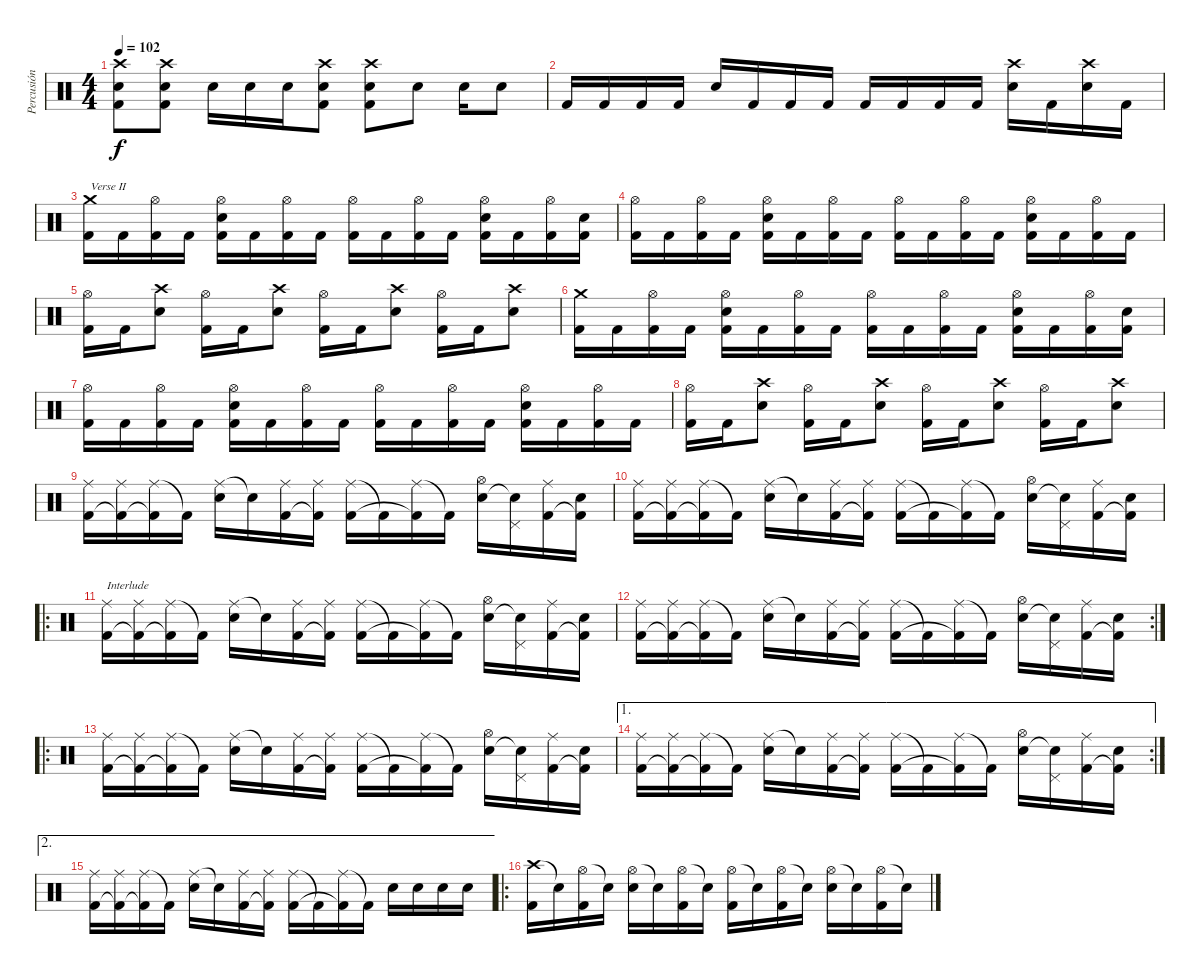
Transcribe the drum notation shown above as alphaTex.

\track ("Percusión" "Percusión") {instrument percussion}
\staff {score}
\articulation defaults
\ts (4 4)
\tempo 102
\clef neutral
\ks c
("Crash high (hit)" "Electric Snare (hit)" "Kick (hit) 2").8{dy f} ("Crash high (hit)" "Electric Snare (hit)" "Kick (hit) 2").8 "Electric Snare (hit)".16 "Electric Snare (hit)".16 "Electric Snare (hit)".16 ("Crash high (hit)" "Electric Snare (hit)" "Kick (hit) 2").8 ("Crash high (hit)" "Electric Snare (hit)" "Kick (hit) 2").8 "Electric Snare (hit)".8 "Electric Snare (hit)".16 "Electric Snare (hit)".8 |
"Kick (hit) 2".16 "Kick (hit) 2".16 "Kick (hit) 2".16 "Kick (hit) 2".16 "Electric Snare (hit)".16 "Kick (hit) 2".16 "Kick (hit) 2".16 "Kick (hit) 2".16 "Kick (hit) 2".16 "Kick (hit) 2".16 "Kick (hit) 2".16 "Kick (hit) 2".16 ("Crash high (hit)" "Electric Snare (hit)").16 "Kick (hit) 2".16 ("Crash high (hit)" "Electric Snare (hit)").16 "Kick (hit) 2".16 |
("Crash medium (hit)" "Kick (hit) 2").16{txt "Verse II"} "Kick (hit) 2".16 ("Hi-Hat (open)" "Kick (hit) 2").16 "Kick (hit) 2".16 ("Hi-Hat (open)" "Electric Snare (hit)" "Kick (hit) 2").16 "Kick (hit) 2".16 ("Hi-Hat (open)" "Kick (hit) 2").16 "Kick (hit) 2".16 ("Hi-Hat (open)" "Kick (hit) 2").16 "Kick (hit) 2".16 ("Hi-Hat (open)" "Kick (hit) 2").16 "Kick (hit) 2".16 ("Hi-Hat (open)" "Electric Snare (hit)" "Kick (hit) 2").16 "Kick (hit) 2".16 ("Hi-Hat (open)" "Kick (hit) 2").16 ("Electric Snare (hit)" "Kick (hit) 2").16 |
("Hi-Hat (open)" "Kick (hit) 2").16 "Kick (hit) 2".16 ("Hi-Hat (open)" "Kick (hit) 2").16 "Kick (hit) 2".16 ("Hi-Hat (open)" "Electric Snare (hit)" "Kick (hit) 2").16 "Kick (hit) 2".16 ("Hi-Hat (open)" "Kick (hit) 2").16 "Kick (hit) 2".16 ("Hi-Hat (open)" "Kick (hit) 2").16 "Kick (hit) 2".16 ("Hi-Hat (open)" "Kick (hit) 2").16 "Kick (hit) 2".16 ("Hi-Hat (open)" "Electric Snare (hit)" "Kick (hit) 2").16 "Kick (hit) 2".16 ("Hi-Hat (open)" "Kick (hit) 2").16 "Kick (hit) 2".16 |
("Hi-Hat (open)" "Kick (hit) 2").16 "Kick (hit) 2".16 ("Crash high (hit)" "Electric Snare (hit)").8 ("Hi-Hat (open)" "Kick (hit) 2").16 "Kick (hit) 2".16 ("Crash high (hit)" "Electric Snare (hit)").8 ("Hi-Hat (open)" "Kick (hit) 2").16 "Kick (hit) 2".16 ("Crash high (hit)" "Electric Snare (hit)").8 ("Hi-Hat (open)" "Kick (hit) 2").16 "Kick (hit) 2".16 ("Crash high (hit)" "Electric Snare (hit)").8 |
("Crash medium (hit)" "Kick (hit) 2").16 "Kick (hit) 2".16 ("Hi-Hat (open)" "Kick (hit) 2").16 "Kick (hit) 2".16 ("Hi-Hat (open)" "Electric Snare (hit)" "Kick (hit) 2").16 "Kick (hit) 2".16 ("Hi-Hat (open)" "Kick (hit) 2").16 "Kick (hit) 2".16 ("Hi-Hat (open)" "Kick (hit) 2").16 "Kick (hit) 2".16 ("Hi-Hat (open)" "Kick (hit) 2").16 "Kick (hit) 2".16 ("Hi-Hat (open)" "Electric Snare (hit)" "Kick (hit) 2").16 "Kick (hit) 2".16 ("Hi-Hat (open)" "Kick (hit) 2").16 ("Electric Snare (hit)" "Kick (hit) 2").16 |
("Hi-Hat (open)" "Kick (hit) 2").16 "Kick (hit) 2".16 ("Hi-Hat (open)" "Kick (hit) 2").16 "Kick (hit) 2".16 ("Hi-Hat (open)" "Electric Snare (hit)" "Kick (hit) 2").16 "Kick (hit) 2".16 ("Hi-Hat (open)" "Kick (hit) 2").16 "Kick (hit) 2".16 ("Hi-Hat (open)" "Kick (hit) 2").16 "Kick (hit) 2".16 ("Hi-Hat (open)" "Kick (hit) 2").16 "Kick (hit) 2".16 ("Hi-Hat (open)" "Electric Snare (hit)" "Kick (hit) 2").16 "Kick (hit) 2".16 ("Hi-Hat (open)" "Kick (hit) 2").16 "Kick (hit) 2".16 |
("Hi-Hat (open)" "Kick (hit) 2").16 "Kick (hit) 2".16 ("Crash high (hit)" "Electric Snare (hit)").8 ("Hi-Hat (open)" "Kick (hit) 2").16 "Kick (hit) 2".16 ("Crash high (hit)" "Electric Snare (hit)").8 ("Hi-Hat (open)" "Kick (hit) 2").16 "Kick (hit) 2".16 ("Crash high (hit)" "Electric Snare (hit)").8 ("Hi-Hat (open)" "Kick (hit) 2").16 "Kick (hit) 2".16 ("Crash high (hit)" "Electric Snare (hit)").8 |
("Ride (middle)" "Kick (hit) 2").16 ("Ride (middle)" "Kick (hit) 2"{t}).16 ("Ride (middle)" "Kick (hit) 2"{t}).16 "Kick (hit) 2"{t}.16 ("Ride (middle)" "Electric Snare (hit)").16 "Snare (hit)"{t}.16 ("Ride (middle)" "Kick (hit) 2").16 ("Ride (middle)" "Kick (hit) 2"{t}).16 ("Ride (middle)" "Kick (hit) 2").16 "Kick (hit) 2"{t}.16 ("Ride (middle)" "Kick (hit) 2"{t}).16 "Kick (hit) 2"{t}.16 ("Hi-Hat (open)" "Electric Snare (hit)").16 ("Pedal Hi-Hat (hit)" "Snare (hit)"{t}).16 ("Ride (middle)" "Kick (hit) 2").16 ("Electric Snare (hit)" "Kick (hit) 2"{t}).16 |
("Ride (middle)" "Kick (hit) 2").16 ("Ride (middle)" "Kick (hit) 2"{t}).16 ("Ride (middle)" "Kick (hit) 2"{t}).16 "Kick (hit) 2"{t}.16 ("Ride (middle)" "Electric Snare (hit)").16 "Snare (hit)"{t}.16 ("Ride (middle)" "Kick (hit) 2").16 ("Ride (middle)" "Kick (hit) 2"{t}).16 ("Ride (middle)" "Kick (hit) 2").16 "Kick (hit) 2"{t}.16 ("Ride (middle)" "Kick (hit) 2"{t}).16 "Kick (hit) 2"{t}.16 ("Hi-Hat (open)" "Electric Snare (hit)").16 ("Pedal Hi-Hat (hit)" "Snare (hit)"{t}).16 ("Ride (middle)" "Kick (hit) 2").16 ("Electric Snare (hit)" "Kick (hit) 2"{t}).16 |
\ro
("Ride (middle)" "Kick (hit) 2").16{txt "Interlude"} ("Ride (middle)" "Kick (hit) 2"{t}).16 ("Ride (middle)" "Kick (hit) 2"{t}).16 "Kick (hit) 2"{t}.16 ("Ride (middle)" "Electric Snare (hit)").16 "Snare (hit)"{t}.16 ("Ride (middle)" "Kick (hit) 2").16 ("Ride (middle)" "Kick (hit) 2"{t}).16 ("Ride (middle)" "Kick (hit) 2").16 "Kick (hit) 2"{t}.16 ("Ride (middle)" "Kick (hit) 2"{t}).16 "Kick (hit) 2"{t}.16 ("Hi-Hat (open)" "Electric Snare (hit)").16 ("Pedal Hi-Hat (hit)" "Snare (hit)"{t}).16 ("Ride (middle)" "Kick (hit) 2").16 ("Electric Snare (hit)" "Kick (hit) 2"{t}).16 |
\rc 2
("Ride (middle)" "Kick (hit) 2").16 ("Ride (middle)" "Kick (hit) 2"{t}).16 ("Ride (middle)" "Kick (hit) 2"{t}).16 "Kick (hit) 2"{t}.16 ("Ride (middle)" "Electric Snare (hit)").16 "Snare (hit)"{t}.16 ("Ride (middle)" "Kick (hit) 2").16 ("Ride (middle)" "Kick (hit) 2"{t}).16 ("Ride (middle)" "Kick (hit) 2").16 "Kick (hit) 2"{t}.16 ("Ride (middle)" "Kick (hit) 2"{t}).16 "Kick (hit) 2"{t}.16 ("Hi-Hat (open)" "Electric Snare (hit)").16 ("Pedal Hi-Hat (hit)" "Snare (hit)"{t}).16 ("Ride (middle)" "Kick (hit) 2").16 ("Electric Snare (hit)" "Kick (hit) 2"{t}).16 |
\ro
("Ride (middle)" "Kick (hit) 2").16 ("Ride (middle)" "Kick (hit) 2"{t}).16 ("Ride (middle)" "Kick (hit) 2"{t}).16 "Kick (hit) 2"{t}.16 ("Ride (middle)" "Electric Snare (hit)").16 "Snare (hit)"{t}.16 ("Ride (middle)" "Kick (hit) 2").16 ("Ride (middle)" "Kick (hit) 2"{t}).16 ("Ride (middle)" "Kick (hit) 2").16 "Kick (hit) 2"{t}.16 ("Ride (middle)" "Kick (hit) 2"{t}).16 "Kick (hit) 2"{t}.16 ("Hi-Hat (open)" "Electric Snare (hit)").16 ("Pedal Hi-Hat (hit)" "Snare (hit)"{t}).16 ("Ride (middle)" "Kick (hit) 2").16 ("Electric Snare (hit)" "Kick (hit) 2"{t}).16 |
\ae 1
\rc 2
("Ride (middle)" "Kick (hit) 2").16 ("Ride (middle)" "Kick (hit) 2"{t}).16 ("Ride (middle)" "Kick (hit) 2"{t}).16 "Kick (hit) 2"{t}.16 ("Ride (middle)" "Electric Snare (hit)").16 "Snare (hit)"{t}.16 ("Ride (middle)" "Kick (hit) 2").16 ("Ride (middle)" "Kick (hit) 2"{t}).16 ("Ride (middle)" "Kick (hit) 2").16 "Kick (hit) 2"{t}.16 ("Ride (middle)" "Kick (hit) 2"{t}).16 "Kick (hit) 2"{t}.16 ("Hi-Hat (open)" "Electric Snare (hit)").16 ("Pedal Hi-Hat (hit)" "Snare (hit)"{t}).16 ("Ride (middle)" "Kick (hit) 2").16 ("Electric Snare (hit)" "Kick (hit) 2"{t}).16 |
\ae 2
("Ride (middle)" "Kick (hit) 2").16 ("Ride (middle)" "Kick (hit) 2"{t}).16 ("Ride (middle)" "Kick (hit) 2"{t}).16 "Kick (hit) 2"{t}.16 ("Ride (middle)" "Electric Snare (hit)").16 "Snare (hit)"{t}.16 ("Ride (middle)" "Kick (hit) 2").16 ("Ride (middle)" "Kick (hit) 2"{t}).16 ("Ride (middle)" "Kick (hit) 2").16 "Kick (hit) 2"{t}.16 ("Ride (middle)" "Kick (hit) 2"{t}).16 "Kick (hit) 2"{t}.16 "Electric Snare (hit)".16 "Electric Snare (hit)".16 "Electric Snare (hit)".16 "Electric Snare (hit)".16 |
\ro
("Crash high (hit)" "Kick (hit) 2").16 "Snare (hit)"{t}.16 ("Hi-Hat (open)" "Kick (hit) 2").16 "Snare (hit)"{t}.16 ("Hi-Hat (open)" "Electric Snare (hit)").16 "Snare (hit)"{t}.16 ("Hi-Hat (open)" "Kick (hit) 2").16 "Snare (hit)"{t}.16 ("Hi-Hat (open)" "Kick (hit) 2").16 "Snare (hit)"{t}.16 ("Hi-Hat (open)" "Kick (hit) 2").16 "Snare (hit)"{t}.16 ("Hi-Hat (open)" "Electric Snare (hit)").16 "Snare (hit)"{t}.16 ("Hi-Hat (open)" "Kick (hit) 2").16 "Snare (hit)"{t}.16
